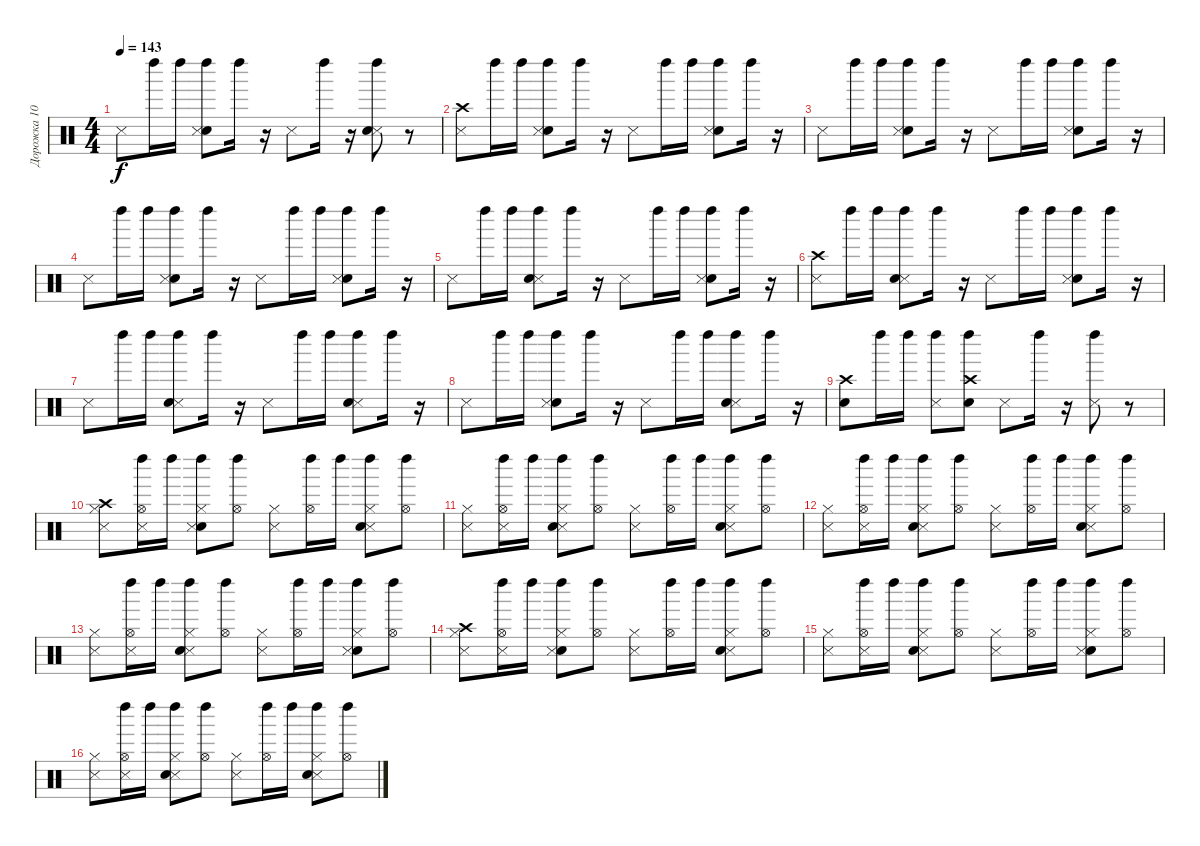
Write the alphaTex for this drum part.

\track ("Дорожка 10" "Дорожка 10") {instrument percussion}
\staff {score}
\articulation defaults
\ts (4 4)
\tempo 143
\clef neutral
\ks c "Metronome (hit)".8{dy f} "Left Maraca (hit)".16 "Left Maraca (hit)".16
("Electric Snare (hit)" "Metronome (hit)" "Left Maraca (hit)").8 "Left Maraca (hit)".16 r.16 "Metronome (hit)".8 "Left Maraca (hit)".16 r.16 ("Metronome (hit)" "Electric Snare (hit)" "Left Maraca (hit)").8 r.8 |
("Metronome (hit)" "Crash high (hit)").8 "Left Maraca (hit)".16 "Left Maraca (hit)".16 ("Electric Snare (hit)" "Metronome (hit)" "Left Maraca (hit)").8 "Left Maraca (hit)".16 r.16 "Metronome (hit)".8 "Left Maraca (hit)".16 "Left Maraca (hit)".16 ("Electric Snare (hit)" "Metronome (hit)" "Left Maraca (hit)").8 "Left Maraca (hit)".16 r.16 |
"Metronome (hit)".8 "Left Maraca (hit)".16 "Left Maraca (hit)".16 ("Electric Snare (hit)" "Metronome (hit)" "Left Maraca (hit)").8 "Left Maraca (hit)".16 r.16 "Metronome (hit)".8 "Left Maraca (hit)".16 "Left Maraca (hit)".16 ("Electric Snare (hit)" "Metronome (hit)" "Left Maraca (hit)").8 "Left Maraca (hit)".16 r.16 |
"Metronome (hit)".8 "Left Maraca (hit)".16 "Left Maraca (hit)".16 ("Electric Snare (hit)" "Metronome (hit)" "Left Maraca (hit)").8 "Left Maraca (hit)".16 r.16 "Metronome (hit)".8 "Left Maraca (hit)".16 "Left Maraca (hit)".16 ("Electric Snare (hit)" "Metronome (hit)" "Left Maraca (hit)").8 "Left Maraca (hit)".16 r.16 |
"Metronome (hit)".8 "Left Maraca (hit)".16 "Left Maraca (hit)".16 ("Metronome (hit)" "Electric Snare (hit)" "Left Maraca (hit)").8 "Left Maraca (hit)".16 r.16 "Metronome (hit)".8 "Left Maraca (hit)".16 "Left Maraca (hit)".16 ("Electric Snare (hit)" "Metronome (hit)" "Left Maraca (hit)").8 "Left Maraca (hit)".16 r.16 |
("Metronome (hit)" "Crash high (hit)").8 "Left Maraca (hit)".16 "Left Maraca (hit)".16 ("Metronome (hit)" "Electric Snare (hit)" "Left Maraca (hit)").8 "Left Maraca (hit)".16 r.16 "Metronome (hit)".8 "Left Maraca (hit)".16 "Left Maraca (hit)".16 ("Electric Snare (hit)" "Metronome (hit)" "Left Maraca (hit)").8 "Left Maraca (hit)".16 r.16 |
"Metronome (hit)".8 "Left Maraca (hit)".16 "Left Maraca (hit)".16 ("Metronome (hit)" "Electric Snare (hit)" "Left Maraca (hit)").8 "Left Maraca (hit)".16 r.16 "Metronome (hit)".8 "Left Maraca (hit)".16 "Left Maraca (hit)".16 ("Metronome (hit)" "Electric Snare (hit)" "Left Maraca (hit)").8 "Left Maraca (hit)".16 r.16 |
"Metronome (hit)".8 "Left Maraca (hit)".16 "Left Maraca (hit)".16 ("Electric Snare (hit)" "Metronome (hit)" "Left Maraca (hit)").8 "Left Maraca (hit)".16 r.16 "Metronome (hit)".8 "Left Maraca (hit)".16 "Left Maraca (hit)".16 ("Metronome (hit)" "Electric Snare (hit)" "Left Maraca (hit)").8 "Left Maraca (hit)".16 r.16 |
("Electric Snare (hit)" "Crash high (hit)").8 "Left Maraca (hit)".16 "Left Maraca (hit)".16 ("Metronome (hit)" "Left Maraca (hit)").8 ("Electric Snare (hit)" "Crash high (hit)" "Left Maraca (hit)").8 "Metronome (hit)".8 "Left Maraca (hit)".16 r.16 ("Metronome (hit)" "Left Maraca (hit)").8 r.8 |
("Metronome (hit)" "Crash high (hit)" "Hi-Hat (closed)").8 ("Metronome (hit)" "Hi-Hat (open)" "Left Maraca (hit)").16 "Left Maraca (hit)".16 ("Electric Snare (hit)" "Metronome (hit)" "Hi-Hat (closed)" "Left Maraca (hit)").8 ("Hi-Hat (open)" "Left Maraca (hit)").8 ("Metronome (hit)" "Hi-Hat (closed)").8 ("Hi-Hat (open)" "Left Maraca (hit)").16 "Left Maraca (hit)".16 ("Metronome (hit)" "Electric Snare (hit)" "Hi-Hat (closed)" "Left Maraca (hit)").8 ("Hi-Hat (open)" "Left Maraca (hit)").8 |
("Metronome (hit)" "Hi-Hat (closed)").8 ("Metronome (hit)" "Hi-Hat (open)" "Left Maraca (hit)").16 "Left Maraca (hit)".16 ("Metronome (hit)" "Electric Snare (hit)" "Hi-Hat (closed)" "Left Maraca (hit)").8 ("Hi-Hat (open)" "Left Maraca (hit)").8 ("Metronome (hit)" "Hi-Hat (closed)").8 ("Hi-Hat (open)" "Left Maraca (hit)").16 "Left Maraca (hit)".16 ("Metronome (hit)" "Electric Snare (hit)" "Hi-Hat (closed)" "Left Maraca (hit)").8 ("Hi-Hat (open)" "Left Maraca (hit)").8 |
("Metronome (hit)" "Hi-Hat (closed)").8 ("Metronome (hit)" "Hi-Hat (open)" "Left Maraca (hit)").16 "Left Maraca (hit)".16 ("Metronome (hit)" "Electric Snare (hit)" "Hi-Hat (closed)" "Left Maraca (hit)").8 ("Hi-Hat (open)" "Left Maraca (hit)").8 ("Metronome (hit)" "Hi-Hat (closed)").8 ("Hi-Hat (open)" "Left Maraca (hit)").16 "Left Maraca (hit)".16 ("Metronome (hit)" "Electric Snare (hit)" "Hi-Hat (closed)" "Left Maraca (hit)").8 ("Hi-Hat (open)" "Left Maraca (hit)").8 |
("Metronome (hit)" "Hi-Hat (closed)").8 ("Metronome (hit)" "Hi-Hat (open)" "Left Maraca (hit)").16 "Left Maraca (hit)".16 ("Metronome (hit)" "Electric Snare (hit)" "Hi-Hat (closed)" "Left Maraca (hit)").8 ("Hi-Hat (open)" "Left Maraca (hit)").8 ("Metronome (hit)" "Hi-Hat (closed)").8 ("Hi-Hat (open)" "Left Maraca (hit)").16 "Left Maraca (hit)".16 ("Electric Snare (hit)" "Metronome (hit)" "Hi-Hat (closed)" "Left Maraca (hit)").8 ("Hi-Hat (open)" "Left Maraca (hit)").8 |
("Metronome (hit)" "Crash high (hit)" "Hi-Hat (closed)").8 ("Metronome (hit)" "Hi-Hat (open)" "Left Maraca (hit)").16 "Left Maraca (hit)".16 ("Electric Snare (hit)" "Metronome (hit)" "Hi-Hat (closed)" "Left Maraca (hit)").8 ("Hi-Hat (open)" "Left Maraca (hit)").8 ("Metronome (hit)" "Hi-Hat (closed)").8 ("Hi-Hat (open)" "Left Maraca (hit)").16 "Left Maraca (hit)".16 ("Metronome (hit)" "Electric Snare (hit)" "Hi-Hat (closed)" "Left Maraca (hit)").8 ("Hi-Hat (open)" "Left Maraca (hit)").8 |
("Metronome (hit)" "Hi-Hat (closed)").8 ("Metronome (hit)" "Hi-Hat (open)" "Left Maraca (hit)").16 "Left Maraca (hit)".16 ("Metronome (hit)" "Electric Snare (hit)" "Hi-Hat (closed)" "Left Maraca (hit)").8 ("Hi-Hat (open)" "Left Maraca (hit)").8 ("Metronome (hit)" "Hi-Hat (closed)").8 ("Hi-Hat (open)" "Left Maraca (hit)").16 "Left Maraca (hit)".16 ("Electric Snare (hit)" "Metronome (hit)" "Hi-Hat (closed)" "Left Maraca (hit)").8 ("Hi-Hat (open)" "Left Maraca (hit)").8 |
("Metronome (hit)" "Hi-Hat (closed)").8 ("Metronome (hit)" "Hi-Hat (open)" "Left Maraca (hit)").16 "Left Maraca (hit)".16 ("Metronome (hit)" "Electric Snare (hit)" "Hi-Hat (closed)" "Left Maraca (hit)").8 ("Hi-Hat (open)" "Left Maraca (hit)").8 ("Metronome (hit)" "Hi-Hat (closed)").8 ("Hi-Hat (open)" "Left Maraca (hit)").16 "Left Maraca (hit)".16 ("Metronome (hit)" "Electric Snare (hit)" "Hi-Hat (closed)" "Left Maraca (hit)").8 ("Hi-Hat (open)" "Left Maraca (hit)").8
